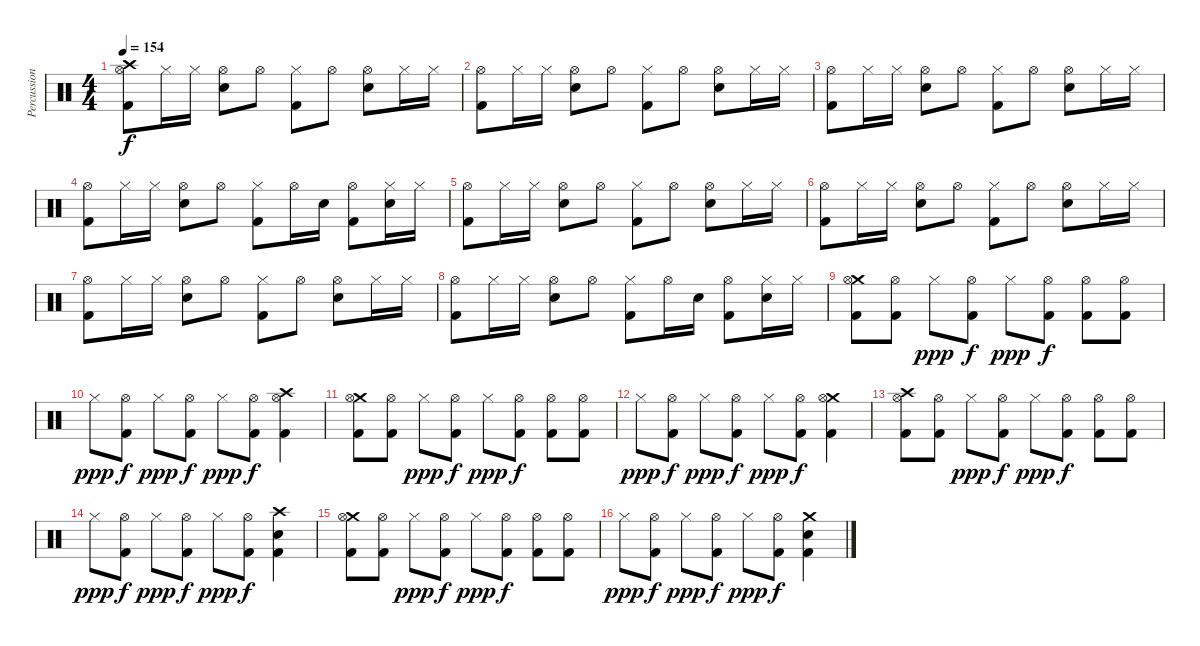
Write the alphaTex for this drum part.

\track ("Percussion" "Percussion") {instrument percussion}
\staff {score}
\articulation defaults
\ts (4 4)
\section ("" "")
\tempo 154
\clef neutral
\ks c
("Crash high (hit)" "Hi-Hat (open)" "Kick (hit) 2").8{dy f} "Hi-Hat (closed)".16 "Hi-Hat (closed)".16 ("Hi-Hat (open)" "Snare (hit) 2").8 "Hi-Hat (open)".8 ("Hi-Hat (closed)" "Kick (hit) 2").8 "Hi-Hat (open)".8 ("Hi-Hat (open)" "Snare (hit) 2").8 "Hi-Hat (closed)".16 "Hi-Hat (closed)".16 |
("Hi-Hat (open)" "Kick (hit) 2").8 "Hi-Hat (closed)".16 "Hi-Hat (closed)".16 ("Hi-Hat (open)" "Snare (hit) 2").8 "Hi-Hat (open)".8 ("Hi-Hat (closed)" "Kick (hit) 2").8 "Hi-Hat (open)".8 ("Hi-Hat (open)" "Snare (hit) 2").8 "Hi-Hat (closed)".16 "Hi-Hat (closed)".16 |
("Hi-Hat (open)" "Kick (hit) 2").8 "Hi-Hat (closed)".16 "Hi-Hat (closed)".16 ("Hi-Hat (open)" "Snare (hit) 2").8 "Hi-Hat (open)".8 ("Hi-Hat (closed)" "Kick (hit) 2").8 "Hi-Hat (open)".8 ("Hi-Hat (open)" "Snare (hit) 2").8 "Hi-Hat (closed)".16 "Hi-Hat (closed)".16 |
("Hi-Hat (open)" "Kick (hit) 2").8 "Hi-Hat (closed)".16 "Hi-Hat (closed)".16 ("Hi-Hat (open)" "Snare (hit) 2").8 "Hi-Hat (open)".8 ("Hi-Hat (closed)" "Kick (hit) 2").8 "Hi-Hat (open)".16 "Snare (hit) 2".16 ("Hi-Hat (open)" "Kick (hit) 2").8 ("Hi-Hat (closed)" "Snare (hit) 2").16 "Hi-Hat (closed)".16 |
("Hi-Hat (open)" "Kick (hit) 2").8 "Hi-Hat (closed)".16 "Hi-Hat (closed)".16 ("Hi-Hat (open)" "Snare (hit) 2").8 "Hi-Hat (open)".8 ("Hi-Hat (closed)" "Kick (hit) 2").8 "Hi-Hat (open)".8 ("Hi-Hat (open)" "Snare (hit) 2").8 "Hi-Hat (closed)".16 "Hi-Hat (closed)".16 |
("Hi-Hat (open)" "Kick (hit) 2").8 "Hi-Hat (closed)".16 "Hi-Hat (closed)".16 ("Hi-Hat (open)" "Snare (hit) 2").8 "Hi-Hat (open)".8 ("Hi-Hat (closed)" "Kick (hit) 2").8 "Hi-Hat (open)".8 ("Hi-Hat (open)" "Snare (hit) 2").8 "Hi-Hat (closed)".16 "Hi-Hat (closed)".16 |
("Hi-Hat (open)" "Kick (hit) 2").8 "Hi-Hat (closed)".16 "Hi-Hat (closed)".16 ("Hi-Hat (open)" "Snare (hit) 2").8 "Hi-Hat (open)".8 ("Hi-Hat (closed)" "Kick (hit) 2").8 "Hi-Hat (open)".8 ("Hi-Hat (open)" "Snare (hit) 2").8 "Hi-Hat (closed)".16 "Hi-Hat (closed)".16 |
("Hi-Hat (open)" "Kick (hit) 2").8 "Hi-Hat (closed)".16 "Hi-Hat (closed)".16 ("Hi-Hat (open)" "Snare (hit) 2").8 "Hi-Hat (open)".8 ("Hi-Hat (closed)" "Kick (hit) 2").8 "Hi-Hat (open)".16 "Snare (hit) 2".16 ("Hi-Hat (open)" "Kick (hit) 2").8 ("Hi-Hat (closed)" "Snare (hit) 2").16 "Hi-Hat (closed)".16 |
\section ("" "")
("Crash medium (hit)" "Hi-Hat (open)" "Kick (hit) 2").8 ("Hi-Hat (open)" "Kick (hit) 2").8 "Hi-Hat (closed)".8{dy ppp} ("Hi-Hat (open)" "Kick (hit) 2").8{dy f} "Hi-Hat (closed)".8{dy ppp} ("Hi-Hat (open)" "Kick (hit) 2").8{dy f} ("Hi-Hat (open)" "Kick (hit) 2").8 ("Hi-Hat (open)" "Kick (hit) 2").8 |
"Hi-Hat (closed)".8{dy ppp} ("Hi-Hat (open)" "Kick (hit) 2").8{dy f} "Hi-Hat (closed)".8{dy ppp} ("Hi-Hat (open)" "Kick (hit) 2").8{dy f} "Hi-Hat (closed)".8{dy ppp} ("Hi-Hat (open)" "Kick (hit) 2").8{dy f} ("Crash high (hit)" "Hi-Hat (open)" "Kick (hit) 2").4 |
("Crash medium (hit)" "Hi-Hat (open)" "Kick (hit) 2").8 ("Hi-Hat (open)" "Kick (hit) 2").8 "Hi-Hat (closed)".8{dy ppp} ("Hi-Hat (open)" "Kick (hit) 2").8{dy f} "Hi-Hat (closed)".8{dy ppp} ("Hi-Hat (open)" "Kick (hit) 2").8{dy f} ("Hi-Hat (open)" "Kick (hit) 2").8 ("Hi-Hat (open)" "Kick (hit) 2").8 |
"Hi-Hat (closed)".8{dy ppp} ("Hi-Hat (open)" "Kick (hit) 2").8{dy f} "Hi-Hat (closed)".8{dy ppp} ("Hi-Hat (open)" "Kick (hit) 2").8{dy f} "Hi-Hat (closed)".8{dy ppp} ("Hi-Hat (open)" "Kick (hit) 2").8{dy f} ("Crash medium (hit)" "Hi-Hat (open)" "Kick (hit) 2").4 |
("Crash high (hit)" "Hi-Hat (open)" "Kick (hit) 2").8 ("Hi-Hat (open)" "Kick (hit) 2").8 "Hi-Hat (closed)".8{dy ppp} ("Hi-Hat (open)" "Kick (hit) 2").8{dy f} "Hi-Hat (closed)".8{dy ppp} ("Hi-Hat (open)" "Kick (hit) 2").8{dy f} ("Hi-Hat (open)" "Kick (hit) 2").8 ("Hi-Hat (open)" "Kick (hit) 2").8 |
"Hi-Hat (closed)".8{dy ppp} ("Hi-Hat (open)" "Kick (hit) 2").8{dy f} "Hi-Hat (closed)".8{dy ppp} ("Hi-Hat (open)" "Kick (hit) 2").8{dy f} "Hi-Hat (closed)".8{dy ppp} ("Hi-Hat (open)" "Kick (hit) 2").8{dy f} ("Crash high (hit)" "Snare (hit) 2" "Kick (hit) 2").4 |
("Crash medium (hit)" "Hi-Hat (open)" "Kick (hit) 2").8 ("Hi-Hat (open)" "Kick (hit) 2").8 "Hi-Hat (closed)".8{dy ppp} ("Hi-Hat (open)" "Kick (hit) 2").8{dy f} "Hi-Hat (closed)".8{dy ppp} ("Hi-Hat (open)" "Kick (hit) 2").8{dy f} ("Hi-Hat (open)" "Kick (hit) 2").8 ("Hi-Hat (open)" "Kick (hit) 2").8 |
"Hi-Hat (closed)".8{dy ppp} ("Hi-Hat (open)" "Kick (hit) 2").8{dy f} "Hi-Hat (closed)".8{dy ppp} ("Hi-Hat (open)" "Kick (hit) 2").8{dy f} "Hi-Hat (closed)".8{dy ppp} ("Hi-Hat (open)" "Kick (hit) 2").8{dy f} ("Crash medium (hit)" "Snare (hit) 2" "Kick (hit) 2").4
